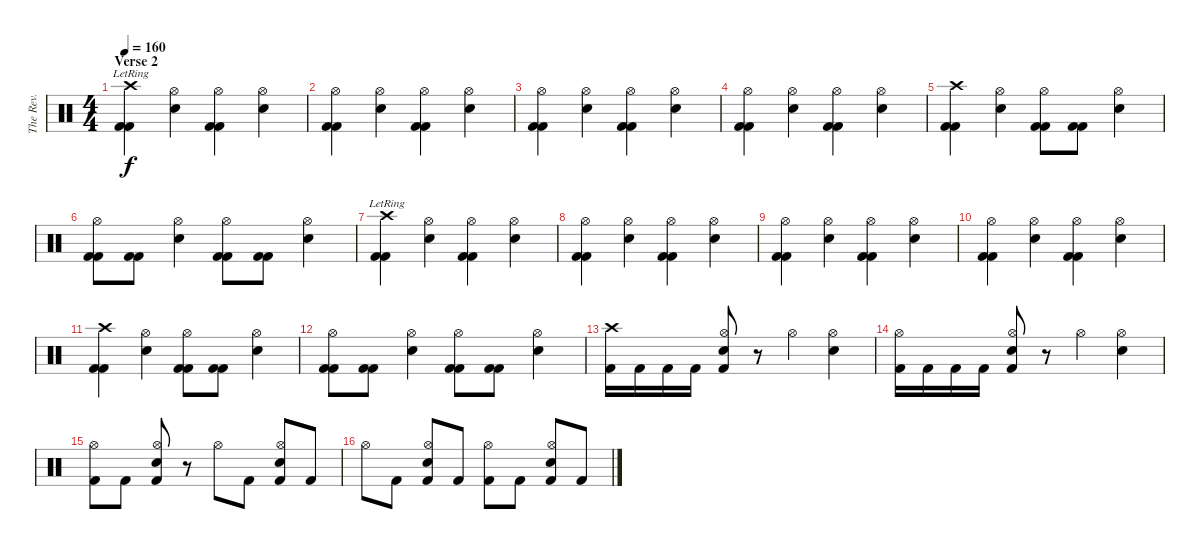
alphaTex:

\track ("The Rev." "The Rev.") {instrument percussion}
\staff {score}
\articulation defaults
\ts (4 4)
\section ("" "Verse 2")
\tempo 160
\clef neutral
\ks c
("Crash high (hit)" "Kick (hit) 2" "Kick (hit) 2"{lr}).4{dy f} ("Hi-Hat (open)" "Electric Snare (hit)").4 ("Hi-Hat (open)" "Kick (hit) 2" "Kick (hit) 2").4 ("Hi-Hat (open)" "Electric Snare (hit)").4 |
("Hi-Hat (open)" "Kick (hit) 2" "Kick (hit) 2").4 ("Hi-Hat (open)" "Electric Snare (hit)").4 ("Hi-Hat (open)" "Kick (hit) 2" "Kick (hit) 2").4 ("Hi-Hat (open)" "Electric Snare (hit)").4 |
("Hi-Hat (open)" "Kick (hit) 2" "Kick (hit) 2").4 ("Hi-Hat (open)" "Electric Snare (hit)").4 ("Hi-Hat (open)" "Kick (hit) 2" "Kick (hit) 2").4 ("Hi-Hat (open)" "Electric Snare (hit)").4 |
("Hi-Hat (open)" "Kick (hit) 2" "Kick (hit) 2").4 ("Hi-Hat (open)" "Electric Snare (hit)").4 ("Hi-Hat (open)" "Kick (hit) 2" "Kick (hit) 2").4 ("Hi-Hat (open)" "Electric Snare (hit)").4 |
("Crash high (hit)" "Kick (hit) 2" "Kick (hit) 2").4 ("Hi-Hat (open)" "Electric Snare (hit)").4 ("Hi-Hat (open)" "Kick (hit) 2" "Kick (hit) 2").8 ("Kick (hit) 2" "Kick (hit) 2").8 ("Hi-Hat (open)" "Electric Snare (hit)").4 |
("Hi-Hat (open)" "Kick (hit) 2" "Kick (hit) 2").8 ("Kick (hit) 2" "Kick (hit) 2").8 ("Hi-Hat (open)" "Electric Snare (hit)").4 ("Hi-Hat (open)" "Kick (hit) 2" "Kick (hit) 2").8 ("Kick (hit) 2" "Kick (hit) 2").8 ("Hi-Hat (open)" "Electric Snare (hit)").4 |
("Crash high (hit)" "Kick (hit) 2" "Kick (hit) 2"{lr}).4 ("Hi-Hat (open)" "Electric Snare (hit)").4 ("Hi-Hat (open)" "Kick (hit) 2" "Kick (hit) 2").4 ("Hi-Hat (open)" "Electric Snare (hit)").4 |
("Hi-Hat (open)" "Kick (hit) 2" "Kick (hit) 2").4 ("Hi-Hat (open)" "Electric Snare (hit)").4 ("Hi-Hat (open)" "Kick (hit) 2" "Kick (hit) 2").4 ("Hi-Hat (open)" "Electric Snare (hit)").4 |
("Hi-Hat (open)" "Kick (hit) 2" "Kick (hit) 2").4 ("Hi-Hat (open)" "Electric Snare (hit)").4 ("Hi-Hat (open)" "Kick (hit) 2" "Kick (hit) 2").4 ("Hi-Hat (open)" "Electric Snare (hit)").4 |
("Hi-Hat (open)" "Kick (hit) 2" "Kick (hit) 2").4 ("Hi-Hat (open)" "Electric Snare (hit)").4 ("Hi-Hat (open)" "Kick (hit) 2" "Kick (hit) 2").4 ("Hi-Hat (open)" "Electric Snare (hit)").4 |
("Crash high (hit)" "Kick (hit) 2" "Kick (hit) 2").4 ("Hi-Hat (open)" "Electric Snare (hit)").4 ("Hi-Hat (open)" "Kick (hit) 2" "Kick (hit) 2").8 ("Kick (hit) 2" "Kick (hit) 2").8 ("Hi-Hat (open)" "Electric Snare (hit)").4 |
("Hi-Hat (open)" "Kick (hit) 2" "Kick (hit) 2").8 ("Kick (hit) 2" "Kick (hit) 2").8 ("Hi-Hat (open)" "Electric Snare (hit)").4 ("Hi-Hat (open)" "Kick (hit) 2" "Kick (hit) 2").8 ("Kick (hit) 2" "Kick (hit) 2").8 ("Hi-Hat (open)" "Electric Snare (hit)").4 |
("Crash high (hit)" "Kick (hit) 2").16 "Kick (hit) 2".16 "Kick (hit) 2".16 "Kick (hit) 2".16 ("Hi-Hat (open)" "Electric Snare (hit)" "Kick (hit) 2").8 r.8 "Hi-Hat (open)".4 ("Hi-Hat (open)" "Electric Snare (hit)").4 |
("Hi-Hat (open)" "Kick (hit) 2").16 "Kick (hit) 2".16 "Kick (hit) 2".16 "Kick (hit) 2".16 ("Hi-Hat (open)" "Electric Snare (hit)" "Kick (hit) 2").8 r.8 "Hi-Hat (open)".4 ("Hi-Hat (open)" "Electric Snare (hit)").4 |
("Hi-Hat (open)" "Kick (hit) 2").8 "Kick (hit) 2".8 ("Hi-Hat (open)" "Electric Snare (hit)" "Kick (hit) 2").8 r.8 "Hi-Hat (open)".8 "Kick (hit) 2".8 ("Hi-Hat (open)" "Electric Snare (hit)" "Kick (hit) 2").8 "Kick (hit) 2".8 |
"Hi-Hat (open)".8 "Kick (hit) 2".8 ("Hi-Hat (open)" "Electric Snare (hit)" "Kick (hit) 2").8 "Kick (hit) 2".8 ("Hi-Hat (open)" "Kick (hit) 2").8 "Kick (hit) 2".8 ("Hi-Hat (open)" "Electric Snare (hit)" "Kick (hit) 2").8 "Kick (hit) 2".8
